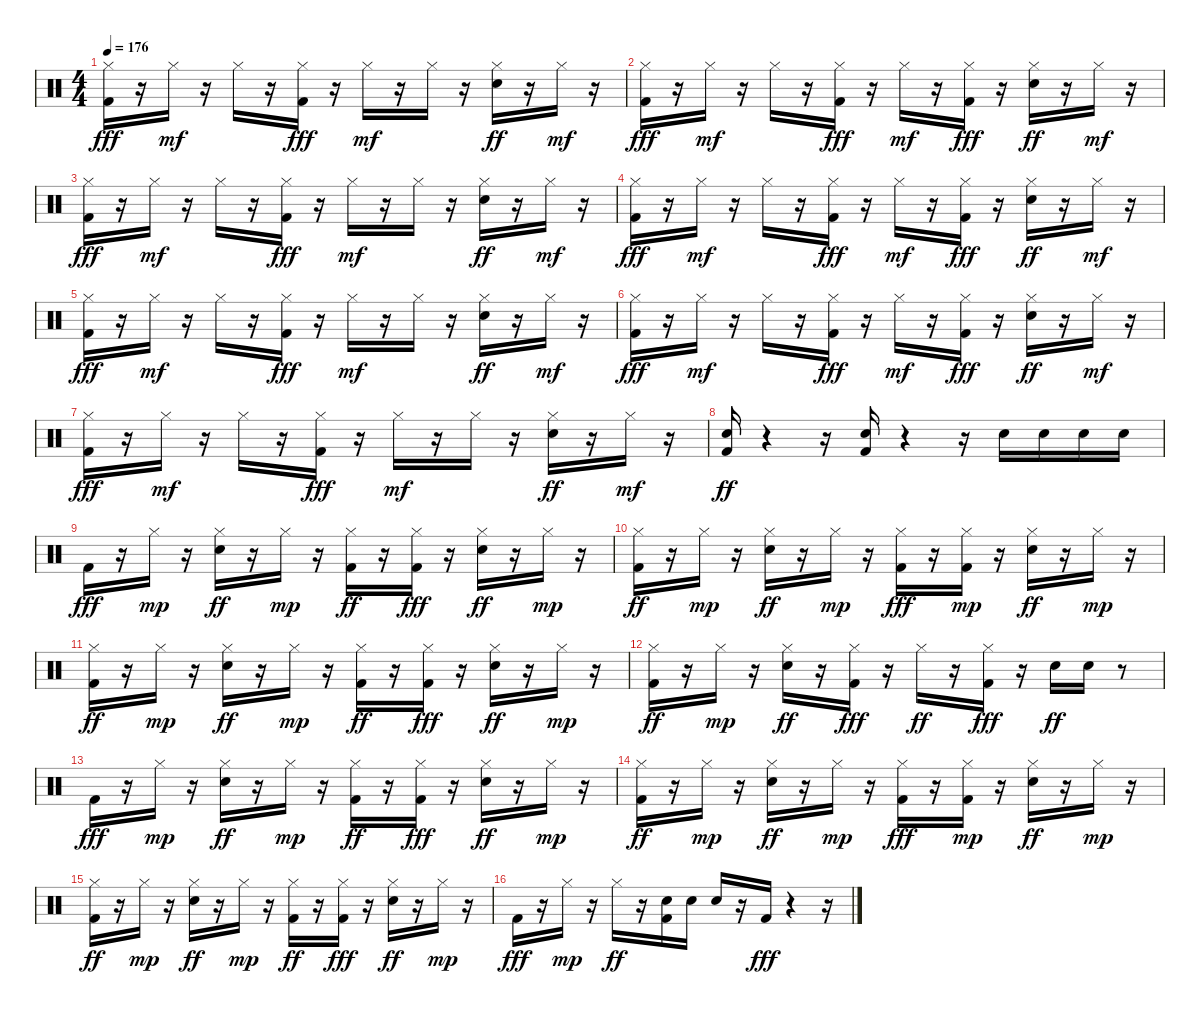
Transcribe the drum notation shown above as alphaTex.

\track "" {instrument percussion}
\staff {score}
\articulation defaults
\ts (4 4)
\tempo 176
\clef neutral
\ks c
("Hi-Hat (closed)" "Kick (hit) 2").16{dy fff} r.16 "Hi-Hat (closed)".16{dy mf} r.16 "Hi-Hat (closed)".16 r.16 ("Hi-Hat (closed)" "Kick (hit) 2").16{dy fff} r.16 "Hi-Hat (closed)".16{dy mf} r.16 "Hi-Hat (closed)".16 r.16 ("Hi-Hat (closed)" "Electric Snare (hit)").16{dy ff} r.16 "Hi-Hat (closed)".16{dy mf} r.16 |
("Hi-Hat (closed)" "Kick (hit) 2").16{dy fff} r.16 "Hi-Hat (closed)".16{dy mf} r.16 "Hi-Hat (closed)".16 r.16 ("Hi-Hat (closed)" "Kick (hit) 2").16{dy fff} r.16 "Hi-Hat (closed)".16{dy mf} r.16 ("Hi-Hat (closed)" "Kick (hit) 2").16{dy fff} r.16 ("Hi-Hat (closed)" "Electric Snare (hit)").16{dy ff} r.16 "Hi-Hat (closed)".16{dy mf} r.16 |
("Hi-Hat (closed)" "Kick (hit) 2").16{dy fff} r.16 "Hi-Hat (closed)".16{dy mf} r.16 "Hi-Hat (closed)".16 r.16 ("Hi-Hat (closed)" "Kick (hit) 2").16{dy fff} r.16 "Hi-Hat (closed)".16{dy mf} r.16 "Hi-Hat (closed)".16 r.16 ("Hi-Hat (closed)" "Electric Snare (hit)").16{dy ff} r.16 "Hi-Hat (closed)".16{dy mf} r.16 |
("Hi-Hat (closed)" "Kick (hit) 2").16{dy fff} r.16 "Hi-Hat (closed)".16{dy mf} r.16 "Hi-Hat (closed)".16 r.16 ("Hi-Hat (closed)" "Kick (hit) 2").16{dy fff} r.16 "Hi-Hat (closed)".16{dy mf} r.16 ("Hi-Hat (closed)" "Kick (hit) 2").16{dy fff} r.16 ("Hi-Hat (closed)" "Electric Snare (hit)").16{dy ff} r.16 "Hi-Hat (closed)".16{dy mf} r.16 |
("Hi-Hat (closed)" "Kick (hit) 2").16{dy fff} r.16 "Hi-Hat (closed)".16{dy mf} r.16 "Hi-Hat (closed)".16 r.16 ("Hi-Hat (closed)" "Kick (hit) 2").16{dy fff} r.16 "Hi-Hat (closed)".16{dy mf} r.16 "Hi-Hat (closed)".16 r.16 ("Hi-Hat (closed)" "Electric Snare (hit)").16{dy ff} r.16 "Hi-Hat (closed)".16{dy mf} r.16 |
("Hi-Hat (closed)" "Kick (hit) 2").16{dy fff} r.16 "Hi-Hat (closed)".16{dy mf} r.16 "Hi-Hat (closed)".16 r.16 ("Hi-Hat (closed)" "Kick (hit) 2").16{dy fff} r.16 "Hi-Hat (closed)".16{dy mf} r.16 ("Hi-Hat (closed)" "Kick (hit) 2").16{dy fff} r.16 ("Hi-Hat (closed)" "Electric Snare (hit)").16{dy ff} r.16 "Hi-Hat (closed)".16{dy mf} r.16 |
("Hi-Hat (closed)" "Kick (hit) 2").16{dy fff} r.16 "Hi-Hat (closed)".16{dy mf} r.16 "Hi-Hat (closed)".16 r.16 ("Hi-Hat (closed)" "Kick (hit) 2").16{dy fff} r.16 "Hi-Hat (closed)".16{dy mf} r.16 "Hi-Hat (closed)".16 r.16 ("Hi-Hat (closed)" "Electric Snare (hit)").16{dy ff} r.16 "Hi-Hat (closed)".16{dy mf} r.16 |
("Kick (hit) 2" "Electric Snare (hit)").16{dy ff} r.4 r.16 ("Kick (hit) 2" "Electric Snare (hit)").16 r.4 r.16 "Electric Snare (hit)".16 "Electric Snare (hit)".16 "Electric Snare (hit)".16 "Electric Snare (hit)".16 |
"Kick (hit) 2".16{dy fff} r.16 "Hi-Hat (closed)".16{dy mp} r.16 ("Electric Snare (hit)" "Hi-Hat (closed)").16{dy ff} r.16 "Hi-Hat (closed)".16{dy mp} r.16 ("Kick (hit) 2" "Hi-Hat (closed)").16{dy ff} r.16 ("Hi-Hat (closed)" "Kick (hit) 2").16{dy fff} r.16 ("Electric Snare (hit)" "Hi-Hat (closed)").16{dy ff} r.16 "Hi-Hat (closed)".16{dy mp} r.16 |
("Kick (hit) 2" "Hi-Hat (closed)").16{dy ff} r.16 "Hi-Hat (closed)".16{dy mp} r.16 ("Electric Snare (hit)" "Hi-Hat (closed)").16{dy ff} r.16 "Hi-Hat (closed)".16{dy mp} r.16 ("Hi-Hat (closed)" "Kick (hit) 2").16{dy fff} r.16 ("Kick (hit) 2" "Hi-Hat (closed)").16{dy mp} r.16 ("Electric Snare (hit)" "Hi-Hat (closed)").16{dy ff} r.16 "Hi-Hat (closed)".16{dy mp} r.16 |
("Kick (hit) 2" "Hi-Hat (closed)").16{dy ff} r.16 "Hi-Hat (closed)".16{dy mp} r.16 ("Electric Snare (hit)" "Hi-Hat (closed)").16{dy ff} r.16 "Hi-Hat (closed)".16{dy mp} r.16 ("Kick (hit) 2" "Hi-Hat (closed)").16{dy ff} r.16 ("Hi-Hat (closed)" "Kick (hit) 2").16{dy fff} r.16 ("Electric Snare (hit)" "Hi-Hat (closed)").16{dy ff} r.16 "Hi-Hat (closed)".16{dy mp} r.16 |
("Kick (hit) 2" "Hi-Hat (closed)").16{dy ff} r.16 "Hi-Hat (closed)".16{dy mp} r.16 ("Electric Snare (hit)" "Hi-Hat (closed)").16{dy ff} r.16 ("Hi-Hat (closed)" "Kick (hit) 2").16{dy fff} r.16 "Hi-Hat (closed)".16{dy ff} r.16 ("Hi-Hat (closed)" "Kick (hit) 2").16{dy fff} r.16 "Electric Snare (hit)".16{dy ff} "Electric Snare (hit)".16 r.8 |
"Kick (hit) 2".16{dy fff} r.16 "Hi-Hat (closed)".16{dy mp} r.16 ("Electric Snare (hit)" "Hi-Hat (closed)").16{dy ff} r.16 "Hi-Hat (closed)".16{dy mp} r.16 ("Kick (hit) 2" "Hi-Hat (closed)").16{dy ff} r.16 ("Hi-Hat (closed)" "Kick (hit) 2").16{dy fff} r.16 ("Electric Snare (hit)" "Hi-Hat (closed)").16{dy ff} r.16 "Hi-Hat (closed)".16{dy mp} r.16 |
("Kick (hit) 2" "Hi-Hat (closed)").16{dy ff} r.16 "Hi-Hat (closed)".16{dy mp} r.16 ("Electric Snare (hit)" "Hi-Hat (closed)").16{dy ff} r.16 "Hi-Hat (closed)".16{dy mp} r.16 ("Hi-Hat (closed)" "Kick (hit) 2").16{dy fff} r.16 ("Kick (hit) 2" "Hi-Hat (closed)").16{dy mp} r.16 ("Electric Snare (hit)" "Hi-Hat (closed)").16{dy ff} r.16 "Hi-Hat (closed)".16{dy mp} r.16 |
("Kick (hit) 2" "Hi-Hat (closed)").16{dy ff} r.16 "Hi-Hat (closed)".16{dy mp} r.16 ("Electric Snare (hit)" "Hi-Hat (closed)").16{dy ff} r.16 "Hi-Hat (closed)".16{dy mp} r.16 ("Kick (hit) 2" "Hi-Hat (closed)").16{dy ff} r.16 ("Hi-Hat (closed)" "Kick (hit) 2").16{dy fff} r.16 ("Electric Snare (hit)" "Hi-Hat (closed)").16{dy ff} r.16 "Hi-Hat (closed)".16{dy mp} r.16 |
"Kick (hit) 2".16{dy fff} r.16 "Hi-Hat (closed)".16{dy mp} r.16 "Hi-Hat (closed)".16{dy ff} r.16 ("Kick (hit) 2" "Electric Snare (hit)").16 "Electric Snare (hit)".16 "Electric Snare (hit)".16 r.16 "Kick (hit) 2".16{dy fff} r.4 r.16
